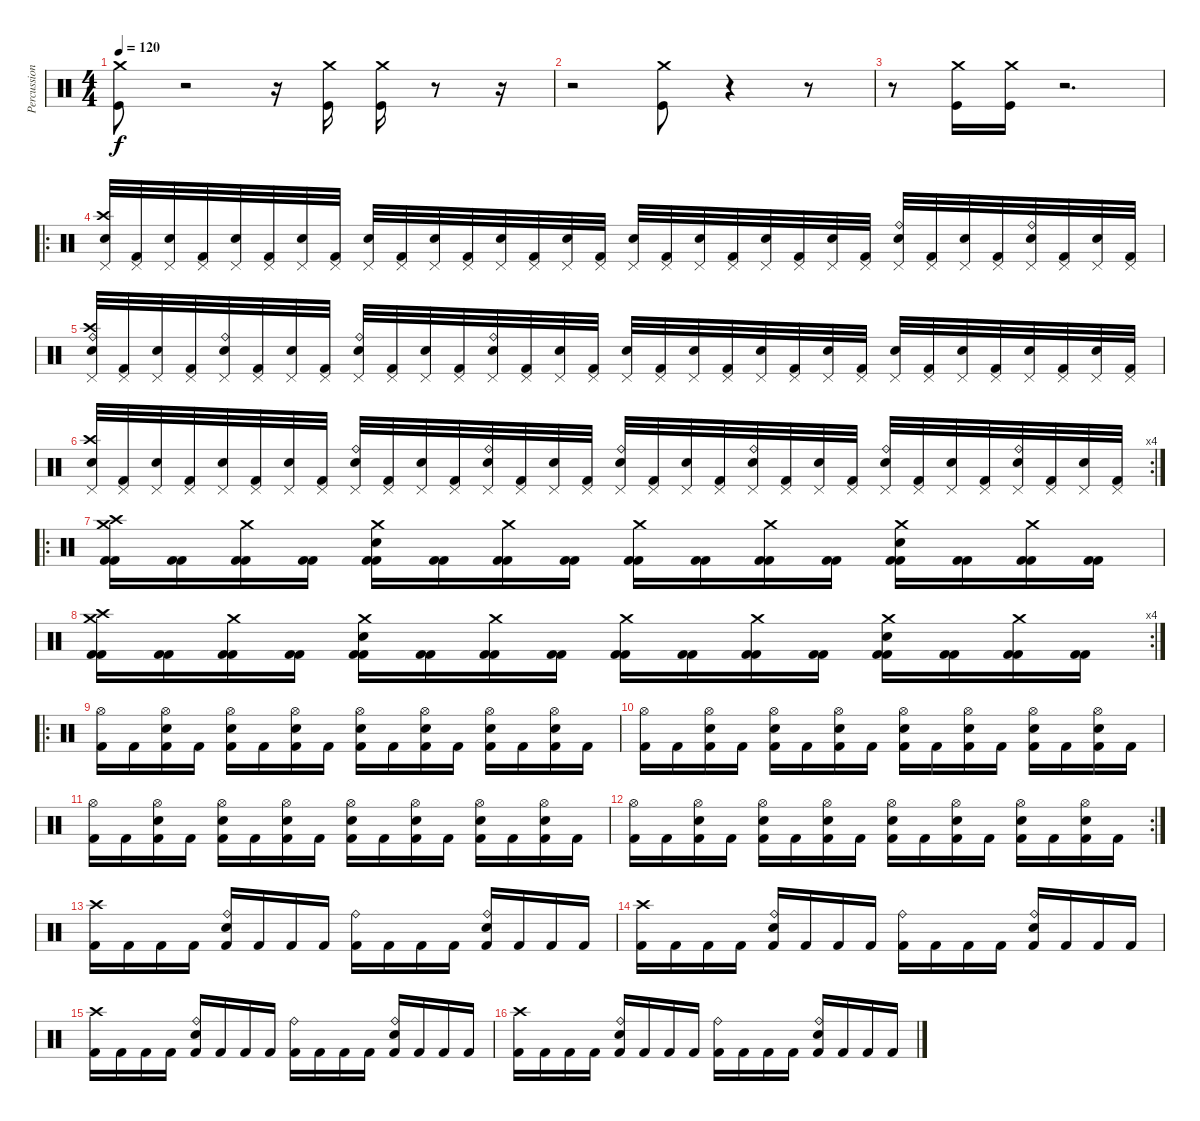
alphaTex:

\track ("Percussions" "Percussion") {instrument percussion}
\staff {score}
\articulation defaults
\ts (4 4)
\tempo 120
\clef neutral
\ks c
("Crash medium (hit)" "Kick (hit)").8{dy f} r.2 r.16 ("Crash medium (hit)" "Kick (hit)").16 ("Crash medium (hit)" "Kick (hit)").16 r.8 r.16 |
r.2 ("Crash medium (hit)" "Kick (hit)").8 r.4 r.8 |
r.8 ("Crash medium (hit)" "Kick (hit)").16 ("Crash medium (hit)" "Kick (hit)").16 r.2{d} |
\ro
("Pedal Hi-Hat (hit)" "Crash high (hit)" "Electric Snare (hit)").32{volume 16} ("Pedal Hi-Hat (hit)" "Kick (hit) 2").32 ("Pedal Hi-Hat (hit)" "Electric Snare (hit)").32 ("Pedal Hi-Hat (hit)" "Kick (hit) 2").32 ("Pedal Hi-Hat (hit)" "Electric Snare (hit)").32 ("Pedal Hi-Hat (hit)" "Kick (hit) 2").32 ("Pedal Hi-Hat (hit)" "Electric Snare (hit)").32 ("Pedal Hi-Hat (hit)" "Kick (hit) 2").32 ("Pedal Hi-Hat (hit)" "Electric Snare (hit)").32 ("Pedal Hi-Hat (hit)" "Kick (hit) 2").32 ("Pedal Hi-Hat (hit)" "Electric Snare (hit)").32 ("Pedal Hi-Hat (hit)" "Kick (hit) 2").32 ("Pedal Hi-Hat (hit)" "Electric Snare (hit)").32 ("Pedal Hi-Hat (hit)" "Kick (hit) 2").32 ("Pedal Hi-Hat (hit)" "Electric Snare (hit)").32 ("Pedal Hi-Hat (hit)" "Kick (hit) 2").32 ("Pedal Hi-Hat (hit)" "Electric Snare (hit)").32 ("Pedal Hi-Hat (hit)" "Kick (hit) 2").32 ("Pedal Hi-Hat (hit)" "Electric Snare (hit)").32 ("Pedal Hi-Hat (hit)" "Kick (hit) 2").32 ("Pedal Hi-Hat (hit)" "Electric Snare (hit)").32 ("Pedal Hi-Hat (hit)" "Kick (hit) 2").32 ("Pedal Hi-Hat (hit)" "Electric Snare (hit)").32 ("Pedal Hi-Hat (hit)" "Kick (hit) 2").32 ("Ride (bell)" "Pedal Hi-Hat (hit)" "Electric Snare (hit)").32 ("Pedal Hi-Hat (hit)" "Kick (hit) 2").32 ("Pedal Hi-Hat (hit)" "Electric Snare (hit)").32 ("Pedal Hi-Hat (hit)" "Kick (hit) 2").32 ("Ride (bell)" "Pedal Hi-Hat (hit)" "Electric Snare (hit)").32 ("Pedal Hi-Hat (hit)" "Kick (hit) 2").32 ("Pedal Hi-Hat (hit)" "Electric Snare (hit)").32 ("Pedal Hi-Hat (hit)" "Kick (hit) 2").32 |
("Ride (bell)" "Pedal Hi-Hat (hit)" "Crash high (hit)" "Electric Snare (hit)").32 ("Pedal Hi-Hat (hit)" "Kick (hit) 2").32 ("Pedal Hi-Hat (hit)" "Electric Snare (hit)").32 ("Pedal Hi-Hat (hit)" "Kick (hit) 2").32 ("Ride (bell)" "Pedal Hi-Hat (hit)" "Electric Snare (hit)").32 ("Pedal Hi-Hat (hit)" "Kick (hit) 2").32 ("Pedal Hi-Hat (hit)" "Electric Snare (hit)").32 ("Pedal Hi-Hat (hit)" "Kick (hit) 2").32 ("Ride (bell)" "Pedal Hi-Hat (hit)" "Electric Snare (hit)").32 ("Pedal Hi-Hat (hit)" "Kick (hit) 2").32 ("Pedal Hi-Hat (hit)" "Electric Snare (hit)").32 ("Pedal Hi-Hat (hit)" "Kick (hit) 2").32 ("Ride (bell)" "Pedal Hi-Hat (hit)" "Electric Snare (hit)").32 ("Pedal Hi-Hat (hit)" "Kick (hit) 2").32 ("Pedal Hi-Hat (hit)" "Electric Snare (hit)").32 ("Pedal Hi-Hat (hit)" "Kick (hit) 2").32 ("Pedal Hi-Hat (hit)" "Electric Snare (hit)").32 ("Pedal Hi-Hat (hit)" "Kick (hit) 2").32 ("Pedal Hi-Hat (hit)" "Electric Snare (hit)").32 ("Pedal Hi-Hat (hit)" "Kick (hit) 2").32 ("Pedal Hi-Hat (hit)" "Electric Snare (hit)").32 ("Pedal Hi-Hat (hit)" "Kick (hit) 2").32 ("Pedal Hi-Hat (hit)" "Electric Snare (hit)").32 ("Pedal Hi-Hat (hit)" "Kick (hit) 2").32 ("Pedal Hi-Hat (hit)" "Electric Snare (hit)").32 ("Pedal Hi-Hat (hit)" "Kick (hit) 2").32 ("Pedal Hi-Hat (hit)" "Electric Snare (hit)").32 ("Pedal Hi-Hat (hit)" "Kick (hit) 2").32 ("Pedal Hi-Hat (hit)" "Electric Snare (hit)").32 ("Pedal Hi-Hat (hit)" "Kick (hit) 2").32 ("Pedal Hi-Hat (hit)" "Electric Snare (hit)").32 ("Pedal Hi-Hat (hit)" "Kick (hit) 2").32 |
\rc 4
("Pedal Hi-Hat (hit)" "Crash high (hit)" "Electric Snare (hit)").32 ("Pedal Hi-Hat (hit)" "Kick (hit) 2").32 ("Pedal Hi-Hat (hit)" "Electric Snare (hit)").32 ("Pedal Hi-Hat (hit)" "Kick (hit) 2").32 ("Pedal Hi-Hat (hit)" "Electric Snare (hit)").32 ("Pedal Hi-Hat (hit)" "Kick (hit) 2").32 ("Pedal Hi-Hat (hit)" "Electric Snare (hit)").32 ("Pedal Hi-Hat (hit)" "Kick (hit) 2").32 ("Ride (bell)" "Pedal Hi-Hat (hit)" "Electric Snare (hit)").32 ("Pedal Hi-Hat (hit)" "Kick (hit) 2").32 ("Pedal Hi-Hat (hit)" "Electric Snare (hit)").32 ("Pedal Hi-Hat (hit)" "Kick (hit) 2").32 ("Ride (bell)" "Pedal Hi-Hat (hit)" "Electric Snare (hit)").32 ("Pedal Hi-Hat (hit)" "Kick (hit) 2").32 ("Pedal Hi-Hat (hit)" "Electric Snare (hit)").32 ("Pedal Hi-Hat (hit)" "Kick (hit) 2").32 ("Ride (bell)" "Pedal Hi-Hat (hit)" "Electric Snare (hit)").32 ("Pedal Hi-Hat (hit)" "Kick (hit) 2").32 ("Pedal Hi-Hat (hit)" "Electric Snare (hit)").32 ("Pedal Hi-Hat (hit)" "Kick (hit) 2").32 ("Ride (bell)" "Pedal Hi-Hat (hit)" "Electric Snare (hit)").32 ("Pedal Hi-Hat (hit)" "Kick (hit) 2").32 ("Pedal Hi-Hat (hit)" "Electric Snare (hit)").32 ("Pedal Hi-Hat (hit)" "Kick (hit) 2").32 ("Ride (bell)" "Pedal Hi-Hat (hit)" "Electric Snare (hit)").32 ("Pedal Hi-Hat (hit)" "Kick (hit) 2").32 ("Pedal Hi-Hat (hit)" "Electric Snare (hit)").32 ("Pedal Hi-Hat (hit)" "Kick (hit) 2").32 ("Ride (bell)" "Pedal Hi-Hat (hit)" "Electric Snare (hit)").32 ("Pedal Hi-Hat (hit)" "Kick (hit) 2").32 ("Pedal Hi-Hat (hit)" "Electric Snare (hit)").32 ("Pedal Hi-Hat (hit)" "Kick (hit) 2").32 |
\ro
("Kick (hit) 2" "Crash medium (hit)" "Crash high (hit)" "Kick (hit) 2").16 ("Kick (hit) 2" "Kick (hit) 2").16 ("Kick (hit) 2" "Crash medium (hit)" "Kick (hit) 2").16 ("Kick (hit) 2" "Kick (hit) 2").16 ("Kick (hit) 2" "Crash medium (hit)" "Electric Snare (hit)" "Kick (hit) 2").16 ("Kick (hit) 2" "Kick (hit) 2").16 ("Kick (hit) 2" "Crash medium (hit)" "Kick (hit) 2").16 ("Kick (hit) 2" "Kick (hit) 2").16 ("Kick (hit) 2" "Crash medium (hit)" "Kick (hit) 2").16 ("Kick (hit) 2" "Kick (hit) 2").16 ("Kick (hit) 2" "Crash medium (hit)" "Kick (hit) 2").16 ("Kick (hit) 2" "Kick (hit) 2").16 ("Kick (hit) 2" "Crash medium (hit)" "Electric Snare (hit)" "Kick (hit) 2").16 ("Kick (hit) 2" "Kick (hit) 2").16 ("Kick (hit) 2" "Crash medium (hit)" "Kick (hit) 2").16 ("Kick (hit) 2" "Kick (hit) 2").16 |
\rc 4
("Kick (hit) 2" "Crash medium (hit)" "Crash high (hit)" "Kick (hit) 2").16 ("Kick (hit) 2" "Kick (hit) 2").16 ("Kick (hit) 2" "Crash medium (hit)" "Kick (hit) 2").16 ("Kick (hit) 2" "Kick (hit) 2").16 ("Kick (hit) 2" "Crash medium (hit)" "Electric Snare (hit)" "Kick (hit) 2").16 ("Kick (hit) 2" "Kick (hit) 2").16 ("Kick (hit) 2" "Crash medium (hit)" "Kick (hit) 2").16 ("Kick (hit) 2" "Kick (hit) 2").16 ("Kick (hit) 2" "Crash medium (hit)" "Kick (hit) 2").16 ("Kick (hit) 2" "Kick (hit) 2").16 ("Kick (hit) 2" "Crash medium (hit)" "Kick (hit) 2").16 ("Kick (hit) 2" "Kick (hit) 2").16 ("Kick (hit) 2" "Crash medium (hit)" "Electric Snare (hit)" "Kick (hit) 2").16 ("Kick (hit) 2" "Kick (hit) 2").16 ("Kick (hit) 2" "Crash medium (hit)" "Kick (hit) 2").16 ("Kick (hit) 2" "Kick (hit) 2").16 |
\ro
("Hi-Hat (open)" "Kick (hit) 2").16 "Kick (hit) 2".16 ("Hi-Hat (open)" "Electric Snare (hit)" "Kick (hit) 2").16 "Kick (hit) 2".16 ("Hi-Hat (open)" "Electric Snare (hit)" "Kick (hit) 2").16 "Kick (hit) 2".16 ("Hi-Hat (open)" "Electric Snare (hit)" "Kick (hit) 2").16 "Kick (hit) 2".16 ("Hi-Hat (open)" "Electric Snare (hit)" "Kick (hit) 2").16 "Kick (hit) 2".16 ("Hi-Hat (open)" "Electric Snare (hit)" "Kick (hit) 2").16 "Kick (hit) 2".16 ("Hi-Hat (open)" "Electric Snare (hit)" "Kick (hit) 2").16 "Kick (hit) 2".16 ("Hi-Hat (open)" "Electric Snare (hit)" "Kick (hit) 2").16 "Kick (hit) 2".16 |
("Hi-Hat (open)" "Kick (hit) 2").16 "Kick (hit) 2".16 ("Hi-Hat (open)" "Electric Snare (hit)" "Kick (hit) 2").16 "Kick (hit) 2".16 ("Hi-Hat (open)" "Electric Snare (hit)" "Kick (hit) 2").16 "Kick (hit) 2".16 ("Hi-Hat (open)" "Electric Snare (hit)" "Kick (hit) 2").16 "Kick (hit) 2".16 ("Hi-Hat (open)" "Electric Snare (hit)" "Kick (hit) 2").16 "Kick (hit) 2".16 ("Hi-Hat (open)" "Electric Snare (hit)" "Kick (hit) 2").16 "Kick (hit) 2".16 ("Hi-Hat (open)" "Electric Snare (hit)" "Kick (hit) 2").16 "Kick (hit) 2".16 ("Hi-Hat (open)" "Electric Snare (hit)" "Kick (hit) 2").16 "Kick (hit) 2".16 |
("Hi-Hat (open)" "Kick (hit) 2").16 "Kick (hit) 2".16 ("Hi-Hat (open)" "Electric Snare (hit)" "Kick (hit) 2").16 "Kick (hit) 2".16 ("Hi-Hat (open)" "Electric Snare (hit)" "Kick (hit) 2").16 "Kick (hit) 2".16 ("Hi-Hat (open)" "Electric Snare (hit)" "Kick (hit) 2").16 "Kick (hit) 2".16 ("Hi-Hat (open)" "Electric Snare (hit)" "Kick (hit) 2").16 "Kick (hit) 2".16 ("Hi-Hat (open)" "Electric Snare (hit)" "Kick (hit) 2").16 "Kick (hit) 2".16 ("Hi-Hat (open)" "Electric Snare (hit)" "Kick (hit) 2").16 "Kick (hit) 2".16 ("Hi-Hat (open)" "Electric Snare (hit)" "Kick (hit) 2").16 "Kick (hit) 2".16 |
\rc 2
("Hi-Hat (open)" "Kick (hit) 2").16 "Kick (hit) 2".16 ("Hi-Hat (open)" "Electric Snare (hit)" "Kick (hit) 2").16 "Kick (hit) 2".16 ("Hi-Hat (open)" "Electric Snare (hit)" "Kick (hit) 2").16 "Kick (hit) 2".16 ("Hi-Hat (open)" "Electric Snare (hit)" "Kick (hit) 2").16 "Kick (hit) 2".16 ("Hi-Hat (open)" "Electric Snare (hit)" "Kick (hit) 2").16 "Kick (hit) 2".16 ("Hi-Hat (open)" "Electric Snare (hit)" "Kick (hit) 2").16 "Kick (hit) 2".16 ("Hi-Hat (open)" "Electric Snare (hit)" "Kick (hit) 2").16 "Kick (hit) 2".16 ("Hi-Hat (open)" "Electric Snare (hit)" "Kick (hit) 2").16 "Kick (hit) 2".16 |
("Crash high (hit)" "Kick (hit) 2").16 "Kick (hit) 2".16 "Kick (hit) 2".16 "Kick (hit) 2".16 ("Ride (bell)" "Snare (hit) 2" "Kick (hit) 2").16 "Kick (hit) 2".16 "Kick (hit) 2".16 "Kick (hit) 2".16 ("Ride (bell)" "Kick (hit) 2").16 "Kick (hit) 2".16 "Kick (hit) 2".16 "Kick (hit) 2".16 ("Ride (bell)" "Snare (hit) 2" "Kick (hit) 2").16 "Kick (hit) 2".16 "Kick (hit) 2".16 "Kick (hit) 2".16 |
("Crash high (hit)" "Kick (hit) 2").16 "Kick (hit) 2".16 "Kick (hit) 2".16 "Kick (hit) 2".16 ("Ride (bell)" "Snare (hit) 2" "Kick (hit) 2").16 "Kick (hit) 2".16 "Kick (hit) 2".16 "Kick (hit) 2".16 ("Ride (bell)" "Kick (hit) 2").16 "Kick (hit) 2".16 "Kick (hit) 2".16 "Kick (hit) 2".16 ("Ride (bell)" "Snare (hit) 2" "Kick (hit) 2").16 "Kick (hit) 2".16 "Kick (hit) 2".16 "Kick (hit) 2".16 |
("Crash high (hit)" "Kick (hit) 2").16 "Kick (hit) 2".16 "Kick (hit) 2".16 "Kick (hit) 2".16 ("Ride (bell)" "Snare (hit) 2" "Kick (hit) 2").16 "Kick (hit) 2".16 "Kick (hit) 2".16 "Kick (hit) 2".16 ("Ride (bell)" "Kick (hit) 2").16 "Kick (hit) 2".16 "Kick (hit) 2".16 "Kick (hit) 2".16 ("Ride (bell)" "Snare (hit) 2" "Kick (hit) 2").16 "Kick (hit) 2".16 "Kick (hit) 2".16 "Kick (hit) 2".16 |
("Crash high (hit)" "Kick (hit) 2").16 "Kick (hit) 2".16 "Kick (hit) 2".16 "Kick (hit) 2".16 ("Ride (bell)" "Snare (hit) 2" "Kick (hit) 2").16 "Kick (hit) 2".16 "Kick (hit) 2".16 "Kick (hit) 2".16 ("Ride (bell)" "Kick (hit) 2").16 "Kick (hit) 2".16 "Kick (hit) 2".16 "Kick (hit) 2".16 ("Ride (bell)" "Snare (hit) 2" "Kick (hit) 2").16 "Kick (hit) 2".16 "Kick (hit) 2".16 "Kick (hit) 2".16
